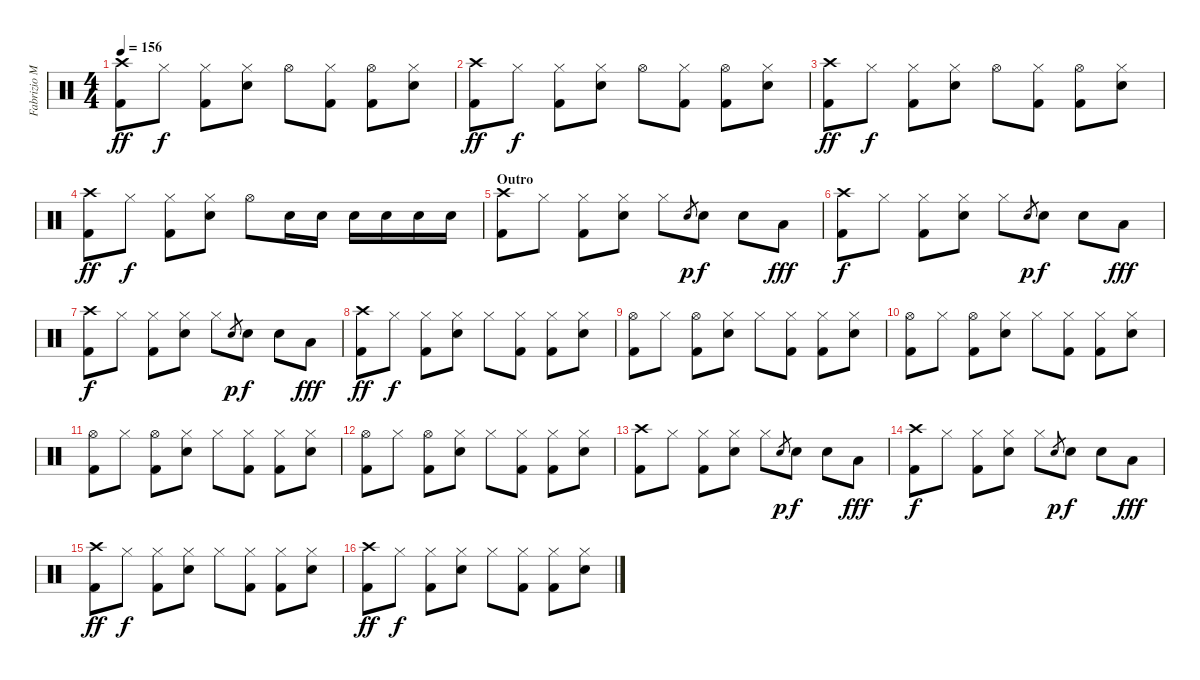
\track ("Fabrizio Moretti" "Fabrizio M") {instrument percussion}
\staff {score}
\articulation defaults
\ts (4 4)
\tempo 156
\clef neutral
\ks c
("Crash high (hit)" "Kick (hit) 2").8{dy ff} "Hi-Hat (closed)".8{dy f} ("Hi-Hat (closed)" "Kick (hit) 2").8 ("Hi-Hat (closed)" "Snare (hit) 2").8 "Hi-Hat (open)".8 ("Hi-Hat (closed)" "Kick (hit) 2").8 ("Hi-Hat (open)" "Kick (hit) 2").8 ("Hi-Hat (closed)" "Snare (hit) 2").8 |
("Crash high (hit)" "Kick (hit) 2").8{dy ff} "Hi-Hat (closed)".8{dy f} ("Hi-Hat (closed)" "Kick (hit) 2").8 ("Hi-Hat (closed)" "Snare (hit) 2").8 "Hi-Hat (open)".8 ("Hi-Hat (closed)" "Kick (hit) 2").8 ("Hi-Hat (open)" "Kick (hit) 2").8 ("Hi-Hat (closed)" "Snare (hit) 2").8 |
("Crash high (hit)" "Kick (hit) 2").8{dy ff} "Hi-Hat (closed)".8{dy f} ("Hi-Hat (closed)" "Kick (hit) 2").8 ("Hi-Hat (closed)" "Snare (hit) 2").8 "Hi-Hat (open)".8 ("Hi-Hat (closed)" "Kick (hit) 2").8 ("Hi-Hat (open)" "Kick (hit) 2").8 ("Hi-Hat (closed)" "Snare (hit) 2").8 |
("Crash high (hit)" "Kick (hit) 2").8{dy ff} "Hi-Hat (closed)".8{dy f} ("Hi-Hat (closed)" "Kick (hit) 2").8 ("Hi-Hat (closed)" "Snare (hit) 2").8 "Hi-Hat (open)".8 "Snare (hit) 2".16 "Snare (hit) 2".16 "Snare (hit) 2".16 "Snare (hit) 2".16 "Snare (hit) 2".16 "Snare (hit) 2".16 |
\section ("" "Outro")
("Crash high (hit)" "Kick (hit) 2").8 "Hi-Hat (closed)".8 ("Hi-Hat (closed)" "Kick (hit) 2").8 ("Hi-Hat (closed)" "Snare (hit) 2").8 "Hi-Hat (closed)".8 "Snare (hit) 2".8{gr dy p} "Snare (hit) 2".8{dy f} "Snare (hit) 2".8 "Low Tom (hit)".8{dy fff} |
("Crash high (hit)" "Kick (hit) 2").8{dy f} "Hi-Hat (closed)".8 ("Hi-Hat (closed)" "Kick (hit) 2").8 ("Hi-Hat (closed)" "Snare (hit) 2").8 "Hi-Hat (closed)".8 "Snare (hit) 2".8{gr dy p} "Snare (hit) 2".8{dy f} "Snare (hit) 2".8 "Low Tom (hit)".8{dy fff} |
("Crash high (hit)" "Kick (hit) 2").8{dy f} "Hi-Hat (closed)".8 ("Hi-Hat (closed)" "Kick (hit) 2").8 ("Hi-Hat (closed)" "Snare (hit) 2").8 "Hi-Hat (closed)".8 "Snare (hit) 2".8{gr dy p} "Snare (hit) 2".8{dy f} "Snare (hit) 2".8 "Low Tom (hit)".8{dy fff} |
("Crash high (hit)" "Kick (hit) 2").8{dy ff} "Hi-Hat (closed)".8{dy f} ("Hi-Hat (closed)" "Kick (hit) 2").8 ("Hi-Hat (closed)" "Snare (hit) 2").8 "Hi-Hat (closed)".8 ("Hi-Hat (closed)" "Kick (hit) 2").8 ("Hi-Hat (closed)" "Kick (hit) 2").8 ("Hi-Hat (closed)" "Snare (hit) 2").8 |
("Hi-Hat (open)" "Kick (hit) 2").8 "Hi-Hat (closed)".8 ("Hi-Hat (open)" "Kick (hit) 2").8 ("Hi-Hat (closed)" "Snare (hit) 2").8 "Hi-Hat (closed)".8 ("Hi-Hat (closed)" "Kick (hit) 2").8 ("Hi-Hat (closed)" "Kick (hit) 2").8 ("Hi-Hat (closed)" "Snare (hit) 2").8 |
("Hi-Hat (open)" "Kick (hit) 2").8 "Hi-Hat (closed)".8 ("Hi-Hat (open)" "Kick (hit) 2").8 ("Hi-Hat (closed)" "Snare (hit) 2").8 "Hi-Hat (closed)".8 ("Hi-Hat (closed)" "Kick (hit) 2").8 ("Hi-Hat (closed)" "Kick (hit) 2").8 ("Hi-Hat (closed)" "Snare (hit) 2").8 |
("Hi-Hat (open)" "Kick (hit) 2").8 "Hi-Hat (closed)".8 ("Hi-Hat (open)" "Kick (hit) 2").8 ("Hi-Hat (closed)" "Snare (hit) 2").8 "Hi-Hat (closed)".8 ("Hi-Hat (closed)" "Kick (hit) 2").8 ("Hi-Hat (closed)" "Kick (hit) 2").8 ("Hi-Hat (closed)" "Snare (hit) 2").8 |
("Hi-Hat (open)" "Kick (hit) 2").8 "Hi-Hat (closed)".8 ("Hi-Hat (open)" "Kick (hit) 2").8 ("Hi-Hat (closed)" "Snare (hit) 2").8 "Hi-Hat (closed)".8 ("Hi-Hat (closed)" "Kick (hit) 2").8 ("Hi-Hat (closed)" "Kick (hit) 2").8 ("Hi-Hat (closed)" "Snare (hit) 2").8 |
("Crash high (hit)" "Kick (hit) 2").8 "Hi-Hat (closed)".8 ("Hi-Hat (closed)" "Kick (hit) 2").8 ("Hi-Hat (closed)" "Snare (hit) 2").8 "Hi-Hat (closed)".8 "Snare (hit) 2".8{gr dy p} "Snare (hit) 2".8{dy f} "Snare (hit) 2".8 "Low Tom (hit)".8{dy fff} |
("Crash high (hit)" "Kick (hit) 2").8{dy f} "Hi-Hat (closed)".8 ("Hi-Hat (closed)" "Kick (hit) 2").8 ("Hi-Hat (closed)" "Snare (hit) 2").8 "Hi-Hat (closed)".8 "Snare (hit) 2".8{gr dy p} "Snare (hit) 2".8{dy f} "Snare (hit) 2".8 "Low Tom (hit)".8{dy fff} |
("Crash high (hit)" "Kick (hit) 2").8{dy ff} "Hi-Hat (closed)".8{dy f} ("Hi-Hat (closed)" "Kick (hit) 2").8 ("Hi-Hat (closed)" "Snare (hit) 2").8 "Hi-Hat (closed)".8 ("Hi-Hat (closed)" "Kick (hit) 2").8 ("Hi-Hat (closed)" "Kick (hit) 2").8 ("Hi-Hat (closed)" "Snare (hit) 2").8 |
("Crash high (hit)" "Kick (hit) 2").8{dy ff} "Hi-Hat (closed)".8{dy f} ("Hi-Hat (closed)" "Kick (hit) 2").8 ("Hi-Hat (closed)" "Snare (hit) 2").8 "Hi-Hat (closed)".8 ("Hi-Hat (closed)" "Kick (hit) 2").8 ("Hi-Hat (closed)" "Kick (hit) 2").8 ("Hi-Hat (closed)" "Snare (hit) 2").8
